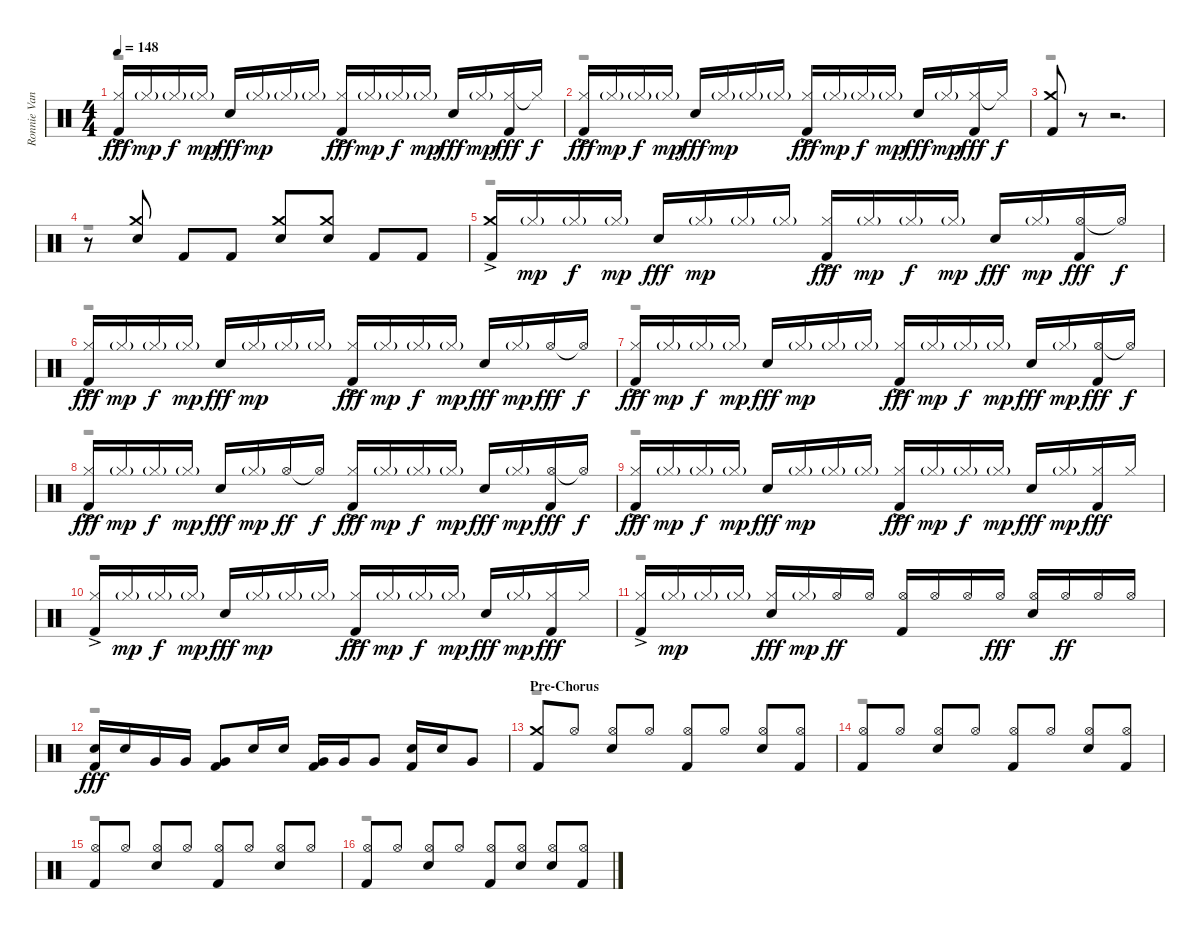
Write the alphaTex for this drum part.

\track ("Ronnie Vannucci Jr. - Drums" "Ronnie Van") {instrument percussion}
\staff {score}
\articulation defaults
\voice
\ts (4 4)
\tempo 148
\clef neutral
\ks c
("Hi-Hat (closed)"{ac} "Kick (hit) 2").16{dy fff} "Hi-Hat (closed)"{g}.16{dy mp} "Hi-Hat (closed)"{g}.16{dy f} "Hi-Hat (closed)"{g}.16{dy mp} "Electric Snare (hit)".16{dy fff} "Hi-Hat (closed)"{g}.16{dy mp} "Hi-Hat (closed)"{g}.16 "Hi-Hat (closed)"{g}.16 ("Hi-Hat (closed)"{ac} "Kick (hit) 2"{ac}).16{dy fff} "Hi-Hat (closed)"{g}.16{dy mp} "Hi-Hat (closed)"{g}.16{dy f} "Hi-Hat (closed)"{g}.16{dy mp} "Electric Snare (hit)".16{dy fff} "Hi-Hat (closed)"{g}.16{dy mp} ("Hi-Hat (closed)" "Kick (hit) 2").16{dy fff} "Hi-Hat (closed)"{t}.16{dy f} |
("Hi-Hat (closed)"{ac} "Kick (hit) 2").16{dy fff} "Hi-Hat (closed)"{g}.16{dy mp} "Hi-Hat (closed)"{g}.16{dy f} "Hi-Hat (closed)"{g}.16{dy mp} "Electric Snare (hit)".16{dy fff} "Hi-Hat (closed)"{g}.16{dy mp} "Hi-Hat (closed)"{g}.16 "Hi-Hat (closed)"{g}.16 ("Hi-Hat (closed)"{ac} "Kick (hit) 2"{ac}).16{dy fff} "Hi-Hat (closed)"{g}.16{dy mp} "Hi-Hat (closed)"{g}.16{dy f} "Hi-Hat (closed)"{g}.16{dy mp} "Electric Snare (hit)".16{dy fff} "Hi-Hat (closed)"{g}.16{dy mp} ("Hi-Hat (closed)" "Kick (hit) 2").16{dy fff} "Hi-Hat (closed)"{t}.16{dy f} |
("Crash medium (hit)" "Kick (hit) 2").8 r.8 r.2{d} |
r.8 ("Crash medium (hit)" "Electric Snare (hit)").8 "Kick (hit) 2".8 "Kick (hit) 2".8 ("Crash medium (hit)" "Electric Snare (hit)").8 ("Crash medium (hit)" "Electric Snare (hit)").8 "Kick (hit) 2".8 "Kick (hit) 2".8 |
("Crash medium (hit)"{ac} "Kick (hit) 2").16 "Hi-Hat (closed)"{g}.16{dy mp} "Hi-Hat (closed)"{g}.16{dy f} "Hi-Hat (closed)"{g}.16{dy mp} "Electric Snare (hit)".16{dy fff} "Hi-Hat (closed)"{g}.16{dy mp} "Hi-Hat (closed)"{g}.16 "Hi-Hat (closed)"{g}.16 ("Hi-Hat (closed)"{ac} "Kick (hit) 2"{ac}).16{dy fff} "Hi-Hat (closed)"{g}.16{dy mp} "Hi-Hat (closed)"{g}.16{dy f} "Hi-Hat (closed)"{g}.16{dy mp} "Electric Snare (hit)".16{dy fff} "Hi-Hat (closed)"{g}.16{dy mp} ("Hi-Hat (open)" "Kick (hit) 2").16{dy fff} "Hi-Hat (open)"{t}.16{dy f} |
("Hi-Hat (closed)"{ac} "Kick (hit) 2").16{dy fff} "Hi-Hat (closed)"{g}.16{dy mp} "Hi-Hat (closed)"{g}.16{dy f} "Hi-Hat (closed)"{g}.16{dy mp} "Electric Snare (hit)".16{dy fff} "Hi-Hat (closed)"{g}.16{dy mp} "Hi-Hat (closed)"{g}.16 "Hi-Hat (closed)"{g}.16 ("Hi-Hat (closed)"{ac} "Kick (hit) 2"{ac}).16{dy fff} "Hi-Hat (closed)"{g}.16{dy mp} "Hi-Hat (closed)"{g}.16{dy f} "Hi-Hat (closed)"{g}.16{dy mp} "Electric Snare (hit)".16{dy fff} "Hi-Hat (closed)"{g}.16{dy mp} "Hi-Hat (open)".16{dy fff} "Hi-Hat (open)"{t}.16{dy f} |
("Hi-Hat (closed)"{ac} "Kick (hit) 2").16{dy fff} "Hi-Hat (closed)"{g}.16{dy mp} "Hi-Hat (closed)"{g}.16{dy f} "Hi-Hat (closed)"{g}.16{dy mp} "Electric Snare (hit)".16{dy fff} "Hi-Hat (closed)"{g}.16{dy mp} "Hi-Hat (closed)"{g}.16 "Hi-Hat (closed)"{g}.16 ("Hi-Hat (closed)"{ac} "Kick (hit) 2"{ac}).16{dy fff} "Hi-Hat (closed)"{g}.16{dy mp} "Hi-Hat (closed)"{g}.16{dy f} "Hi-Hat (closed)"{g}.16{dy mp} "Electric Snare (hit)".16{dy fff} "Hi-Hat (closed)"{g}.16{dy mp} ("Hi-Hat (open)" "Kick (hit) 2").16{dy fff} "Hi-Hat (open)"{t}.16{dy f} |
("Hi-Hat (closed)"{ac} "Kick (hit) 2").16{dy fff} "Hi-Hat (closed)"{g}.16{dy mp} "Hi-Hat (closed)"{g}.16{dy f} "Hi-Hat (closed)"{g}.16{dy mp} "Electric Snare (hit)".16{dy fff} "Hi-Hat (closed)"{g}.16{dy mp} "Hi-Hat (open)".16{dy ff} "Hi-Hat (open)"{t}.16{dy f} ("Hi-Hat (closed)"{ac} "Kick (hit) 2"{ac}).16{dy fff} "Hi-Hat (closed)"{g}.16{dy mp} "Hi-Hat (closed)"{g}.16{dy f} "Hi-Hat (closed)"{g}.16{dy mp} "Electric Snare (hit)".16{dy fff} "Hi-Hat (closed)"{g}.16{dy mp} ("Hi-Hat (open)" "Kick (hit) 2").16{dy fff} "Hi-Hat (open)"{t}.16{dy f} |
("Hi-Hat (closed)"{ac} "Kick (hit) 2").16{dy fff} "Hi-Hat (closed)"{g}.16{dy mp} "Hi-Hat (closed)"{g}.16{dy f} "Hi-Hat (closed)"{g}.16{dy mp} "Electric Snare (hit)".16{dy fff} "Hi-Hat (closed)"{g}.16{dy mp} "Hi-Hat (closed)"{g}.16 "Hi-Hat (closed)"{g}.16 ("Hi-Hat (closed)"{ac} "Kick (hit) 2"{ac}).16{dy fff} "Hi-Hat (closed)"{g}.16{dy mp} "Hi-Hat (closed)"{g}.16{dy f} "Hi-Hat (closed)"{g}.16{dy mp} "Electric Snare (hit)".16{dy fff} "Hi-Hat (closed)"{g}.16{dy mp} ("Hi-Hat (closed)" "Kick (hit) 2").16{dy fff} "Hi-Hat (closed)".16 |
("Hi-Hat (closed)"{ac} "Kick (hit) 2").16 "Hi-Hat (closed)"{g}.16{dy mp} "Hi-Hat (closed)"{g}.16{dy f} "Hi-Hat (closed)"{g}.16{dy mp} "Electric Snare (hit)".16{dy fff} "Hi-Hat (closed)"{g}.16{dy mp} "Hi-Hat (closed)"{g}.16 "Hi-Hat (closed)"{g}.16 ("Hi-Hat (closed)"{ac} "Kick (hit) 2"{ac}).16{dy fff} "Hi-Hat (closed)"{g}.16{dy mp} "Hi-Hat (closed)"{g}.16{dy f} "Hi-Hat (closed)"{g}.16{dy mp} "Electric Snare (hit)".16{dy fff} "Hi-Hat (closed)"{g}.16{dy mp} ("Hi-Hat (closed)" "Kick (hit) 2").16{dy fff} "Hi-Hat (closed)".16 |
("Hi-Hat (closed)"{ac} "Kick (hit) 2").16 "Hi-Hat (closed)"{g}.16{dy mp} "Hi-Hat (closed)"{g}.16 "Hi-Hat (closed)"{g}.16 ("Hi-Hat (closed)" "Electric Snare (hit)").16{dy fff} "Hi-Hat (closed)"{g}.16{dy mp} "Hi-Hat (open)".16{dy ff} "Hi-Hat (open)".16 ("Hi-Hat (open)" "Kick (hit) 2").16 "Hi-Hat (open)".16 "Hi-Hat (open)".16 "Hi-Hat (open)".16{dy fff} ("Hi-Hat (open)" "Electric Snare (hit)").16 "Hi-Hat (open)".16{dy ff} "Hi-Hat (open)".16 "Hi-Hat (open)".16 |
("Electric Snare (hit)" "Kick (hit) 2").16{dy fff} "Electric Snare (hit)".16 "Very Low Tom (hit)".16 "Very Low Tom (hit)".16 ("Very Low Tom (hit)" "Kick (hit) 2").8 "Electric Snare (hit)".16 "Electric Snare (hit)".16 ("Very Low Tom (hit)" "Kick (hit) 2").16 "Very Low Tom (hit)".16 "Very Low Tom (hit)".8 ("Electric Snare (hit)" "Kick (hit) 2").16 "Electric Snare (hit)".16 "Very Low Tom (hit)".8 |
\section ("" "Pre-Chorus")
("Crash medium (hit)" "Kick (hit) 2").8 "Hi-Hat (open)".8 ("Hi-Hat (open)" "Electric Snare (hit)").8 "Hi-Hat (open)".8 ("Hi-Hat (open)" "Kick (hit) 2").8 "Hi-Hat (open)".8 ("Hi-Hat (open)" "Electric Snare (hit)").8 ("Hi-Hat (open)" "Kick (hit) 2").8 |
("Hi-Hat (open)" "Kick (hit) 2").8 "Hi-Hat (open)".8 ("Hi-Hat (open)" "Electric Snare (hit)").8 "Hi-Hat (open)".8 ("Hi-Hat (open)" "Kick (hit) 2").8 "Hi-Hat (open)".8 ("Hi-Hat (open)" "Electric Snare (hit)").8 ("Hi-Hat (open)" "Kick (hit) 2").8 |
("Hi-Hat (open)" "Kick (hit) 2").8 "Hi-Hat (open)".8 ("Hi-Hat (open)" "Electric Snare (hit)").8 "Hi-Hat (open)".8 ("Hi-Hat (open)" "Kick (hit) 2").8 "Hi-Hat (open)".8 ("Hi-Hat (open)" "Electric Snare (hit)").8 "Hi-Hat (open)".8 |
("Hi-Hat (open)" "Kick (hit) 2").8 "Hi-Hat (open)".8 ("Hi-Hat (open)" "Electric Snare (hit)").8 "Hi-Hat (open)".8 ("Hi-Hat (open)" "Kick (hit) 2").8 ("Hi-Hat (open)" "Electric Snare (hit)").8 ("Hi-Hat (open)" "Electric Snare (hit)").8 ("Hi-Hat (open)" "Kick (hit) 2").8
\voice
\clef neutral
\ottava regular
\simile none
\ks c
r.1{dy f} |
r.1 |
r.1 |
r.1 |
r.1 |
r.1 |
r.1 |
r.1 |
r.1 |
r.1 |
r.1 |
r.1 |
r.1 |
r.1 |
r.1 |
r.1
